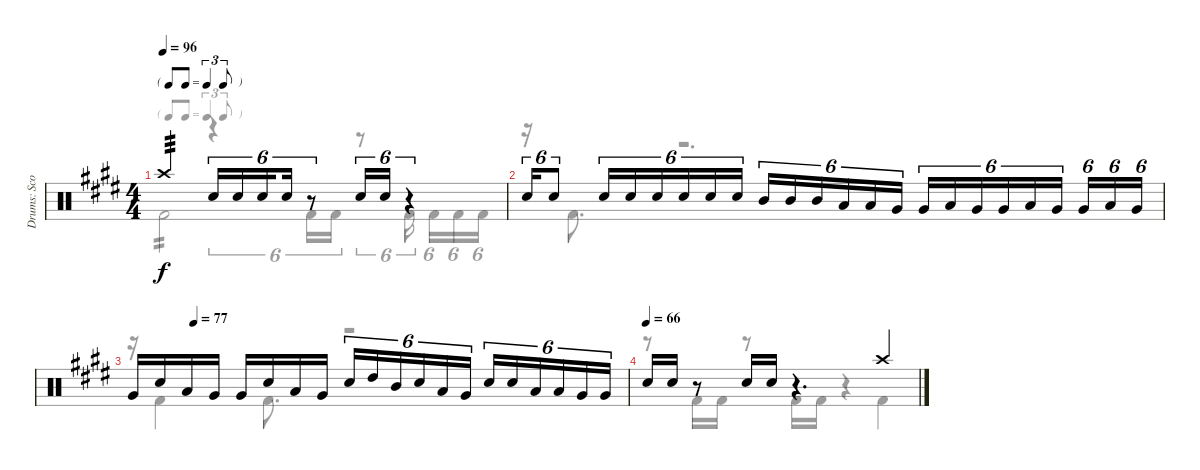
\track ("Drums: Scott" "Drums: Sco") {instrument percussion}
\staff {score}
\articulation defaults
\voice
\ts (4 4)
\tf triplet8th
\tempo 96
\clef neutral
\ks e "Crash high (hit)".2{tp 3 dy f} "Electric Snare (hit)".16{tu (6 4)} "Electric Snare (hit)".16{tu (6 4)} "Electric Snare (hit)".16{tu (6 4) beam splitsecondary} "Electric Snare (hit)".16{tu (6 4)}
r.8{tu (6 4)} "Electric Snare (hit)".16{tu (6 4)} "Electric Snare (hit)".16{tu (6 4)} r.4{tu (6 4)} |
"Electric Snare (hit)".16{tu (6 4)} "Electric Snare (hit)".8{tu (6 4)} "Electric Snare (hit)".16{tu (6 4)} "Electric Snare (hit)".16{tu (6 4)} "Electric Snare (hit)".16{tu (6 4)} "Electric Snare (hit)".16{tu (6 4)} "Electric Snare (hit)".16{tu (6 4)} "Electric Snare (hit)".16{tu (6 4) beam splitsecondary} "Mid Tom (hit)".16{tu (6 4)} "Mid Tom (hit)".16{tu (6 4)} "Mid Tom (hit)".16{tu (6 4)} "Low Tom (hit)".16{tu (6 4)} "Low Tom (hit)".16{tu (6 4)} "Very Low Tom (hit)".16{tu (6 4) beam splitsecondary} "Very Low Tom (hit)".16{tu (6 4)} "Low Tom (hit)".16{tu (6 4)} "Very Low Tom (hit)".16{tu (6 4)} "Very Low Tom (hit)".16{tu (6 4)} "Low Tom (hit)".16{tu (6 4)} "Very Low Tom (hit)".16{tu (6 4) beam splitsecondary} "Very Low Tom (hit)".16{tu (6 4)} "Low Tom (hit)".16{tu (6 4)} "Very Low Tom (hit)".16{tu (6 4)} |
\tempo (77 0.125)
"Very Low Tom (hit)".16 "Electric Snare (hit)".16 "Low Tom (hit)".16 "Very Low Tom (hit)".16 "Very Low Tom (hit)".16 "Electric Snare (hit)".16 "Low Tom (hit)".16 "Very Low Tom (hit)".16 "Electric Snare (hit)".16{tu (6 4)} "High Tom (hit)".16{tu (6 4)} "Mid Tom (hit)".16{tu (6 4)} "Electric Snare (hit)".16{tu (6 4)} "Low Tom (hit)".16{tu (6 4)} "Very Low Tom (hit)".16{tu (6 4)} "Electric Snare (hit)".16{tu (6 4)} "Electric Snare (hit)".16{tu (6 4)} "Low Tom (hit)".16{tu (6 4)} "Low Tom (hit)".16{tu (6 4)} "Very Low Tom (hit)".16{tu (6 4)} "Very Low Tom (hit)".16{tu (6 4)} |
\tempo (66)
"Electric Snare (hit)".16 "Electric Snare (hit)".16 r.8 "Electric Snare (hit)".16 "Electric Snare (hit)".16 r.4{d} "Crash high (hit)".4
\voice
\clef neutral
\ottava regular
\simile none
\ks e "Kick (hit) 2".2{tp 2 dy f}
r.4{tu (6 4)} "Kick (hit) 2".16{tu (6 4)} "Kick (hit) 2".16{tu (6 4)} r.8{tu (6 4)} "Kick (hit) 2".16{tu (6 4)} "Kick (hit) 2".16{tu (6 4)} "Kick (hit) 2".16{tu (6 4)} "Kick (hit) 2".16{tu (6 4)} |
r.16 "Kick (hit) 2".8{d} r.2{d} |
r.16 "Kick (hit) 2".4 "Kick (hit) 2".8{d} r.2 |
r.8 "Kick (hit) 2".16 "Kick (hit) 2".16 r.8 "Kick (hit) 2".16 "Kick (hit) 2".16 r.4 "Kick (hit) 2".4
